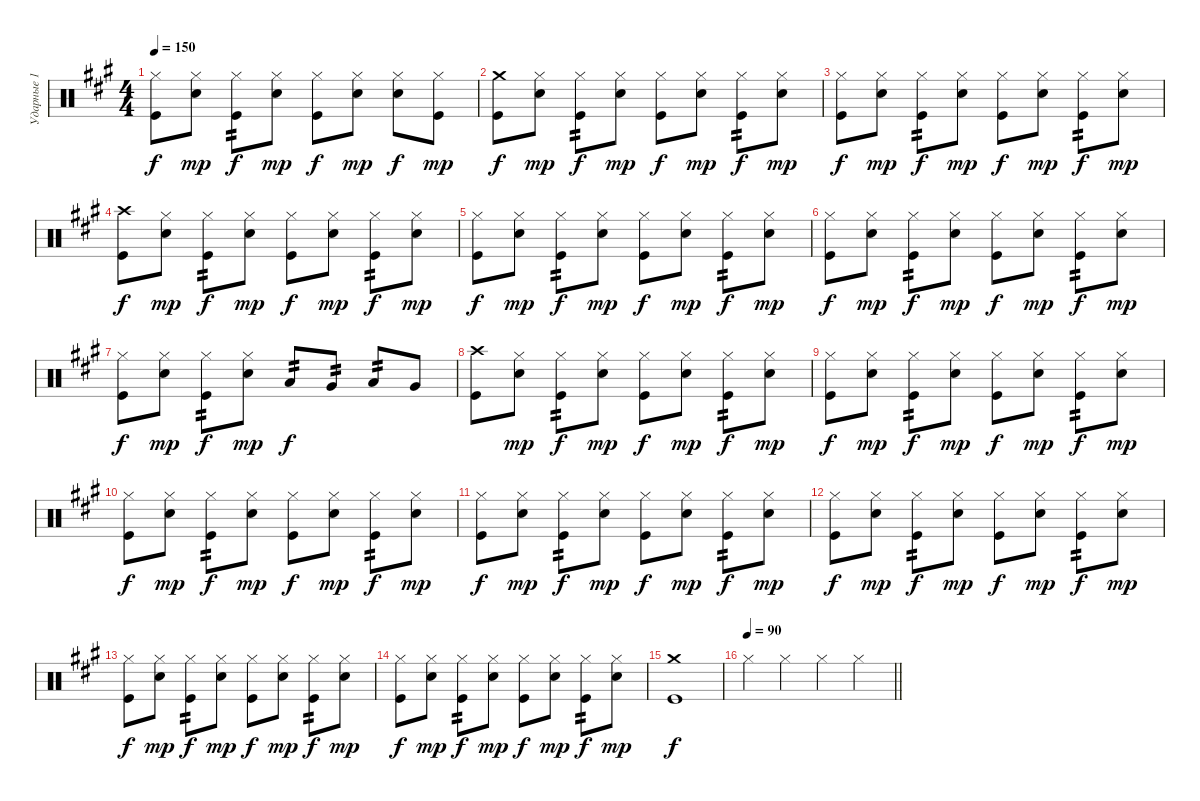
\track ("Ударные 1" "Ударные 1") {instrument percussion}
\staff {score}
\articulation defaults
\ts (4 4)
\tempo 150
\clef neutral
\ks f#minor
("Hi-Hat (closed)" "Kick (hit)").8{dy f} ("Hi-Hat (closed)" "Snare (hit) 2").8{dy mp} ("Hi-Hat (closed)" "Kick (hit)").8{tp 2 dy f} ("Hi-Hat (closed)" "Snare (hit) 2").8{dy mp} ("Hi-Hat (closed)" "Kick (hit)").8{dy f} ("Hi-Hat (closed)" "Snare (hit) 2").8{dy mp} ("Hi-Hat (closed)" "Snare (hit) 2").8{dy f} ("Hi-Hat (closed)" "Kick (hit)").8{dy mp} |
("Crash medium (hit)" "Kick (hit)").8{dy f} ("Hi-Hat (closed)" "Snare (hit) 2").8{dy mp} ("Hi-Hat (closed)" "Kick (hit)").8{tp 2 dy f} ("Hi-Hat (closed)" "Snare (hit) 2").8{dy mp} ("Hi-Hat (closed)" "Kick (hit)").8{dy f} ("Hi-Hat (closed)" "Snare (hit) 2").8{dy mp} ("Hi-Hat (closed)" "Kick (hit)").8{tp 2 dy f} ("Hi-Hat (closed)" "Snare (hit) 2").8{dy mp} |
("Hi-Hat (closed)" "Kick (hit)").8{dy f} ("Hi-Hat (closed)" "Snare (hit) 2").8{dy mp} ("Hi-Hat (closed)" "Kick (hit)").8{tp 2 dy f} ("Hi-Hat (closed)" "Snare (hit) 2").8{dy mp} ("Hi-Hat (closed)" "Kick (hit)").8{dy f} ("Hi-Hat (closed)" "Snare (hit) 2").8{dy mp} ("Hi-Hat (closed)" "Kick (hit)").8{tp 2 dy f} ("Hi-Hat (closed)" "Snare (hit) 2").8{dy mp} |
("Crash high (hit)" "Kick (hit)").8{dy f} ("Hi-Hat (closed)" "Snare (hit) 2").8{dy mp} ("Hi-Hat (closed)" "Kick (hit)").8{tp 2 dy f} ("Hi-Hat (closed)" "Snare (hit) 2").8{dy mp} ("Hi-Hat (closed)" "Kick (hit)").8{dy f} ("Hi-Hat (closed)" "Snare (hit) 2").8{dy mp} ("Hi-Hat (closed)" "Kick (hit)").8{tp 2 dy f} ("Hi-Hat (closed)" "Snare (hit) 2").8{dy mp} |
("Hi-Hat (closed)" "Kick (hit)").8{dy f} ("Hi-Hat (closed)" "Snare (hit) 2").8{dy mp} ("Hi-Hat (closed)" "Kick (hit)").8{tp 2 dy f} ("Hi-Hat (closed)" "Snare (hit) 2").8{dy mp} ("Hi-Hat (closed)" "Kick (hit)").8{dy f} ("Hi-Hat (closed)" "Snare (hit) 2").8{dy mp} ("Hi-Hat (closed)" "Kick (hit)").8{tp 2 dy f} ("Hi-Hat (closed)" "Snare (hit) 2").8{dy mp} |
("Hi-Hat (closed)" "Kick (hit)").8{dy f} ("Hi-Hat (closed)" "Snare (hit) 2").8{dy mp} ("Hi-Hat (closed)" "Kick (hit)").8{tp 2 dy f} ("Hi-Hat (closed)" "Snare (hit) 2").8{dy mp} ("Hi-Hat (closed)" "Kick (hit)").8{dy f} ("Hi-Hat (closed)" "Snare (hit) 2").8{dy mp} ("Hi-Hat (closed)" "Kick (hit)").8{tp 2 dy f} ("Hi-Hat (closed)" "Snare (hit) 2").8{dy mp} |
("Hi-Hat (closed)" "Kick (hit)").8{dy f} ("Hi-Hat (closed)" "Snare (hit) 2").8{dy mp} ("Hi-Hat (closed)" "Kick (hit)").8{tp 2 dy f} ("Hi-Hat (closed)" "Snare (hit) 2").8{dy mp} "Low Tom (hit)".8{tp 2 dy f} "Very Low Tom (hit)".8{tp 2} "Low Floor Tom (hit)".8{tp 2} "Very Low Tom (hit)".8 |
("Crash high (hit)" "Kick (hit)").8 ("Hi-Hat (closed)" "Snare (hit) 2").8{dy mp} ("Hi-Hat (closed)" "Kick (hit)").8{tp 2 dy f} ("Hi-Hat (closed)" "Snare (hit) 2").8{dy mp} ("Hi-Hat (closed)" "Kick (hit)").8{dy f} ("Hi-Hat (closed)" "Snare (hit) 2").8{dy mp} ("Hi-Hat (closed)" "Kick (hit)").8{tp 2 dy f} ("Hi-Hat (closed)" "Snare (hit) 2").8{dy mp} |
("Hi-Hat (closed)" "Kick (hit)").8{dy f} ("Hi-Hat (closed)" "Snare (hit) 2").8{dy mp} ("Hi-Hat (closed)" "Kick (hit)").8{tp 2 dy f} ("Hi-Hat (closed)" "Snare (hit) 2").8{dy mp} ("Hi-Hat (closed)" "Kick (hit)").8{dy f} ("Hi-Hat (closed)" "Snare (hit) 2").8{dy mp} ("Hi-Hat (closed)" "Kick (hit)").8{tp 2 dy f} ("Hi-Hat (closed)" "Snare (hit) 2").8{dy mp} |
("Hi-Hat (closed)" "Kick (hit)").8{dy f} ("Hi-Hat (closed)" "Snare (hit) 2").8{dy mp} ("Hi-Hat (closed)" "Kick (hit)").8{tp 2 dy f} ("Hi-Hat (closed)" "Snare (hit) 2").8{dy mp} ("Hi-Hat (closed)" "Kick (hit)").8{dy f} ("Hi-Hat (closed)" "Snare (hit) 2").8{dy mp} ("Hi-Hat (closed)" "Kick (hit)").8{tp 2 dy f} ("Hi-Hat (closed)" "Snare (hit) 2").8{dy mp} |
("Hi-Hat (closed)" "Kick (hit)").8{dy f} ("Hi-Hat (closed)" "Snare (hit) 2").8{dy mp} ("Hi-Hat (closed)" "Kick (hit)").8{tp 2 dy f} ("Hi-Hat (closed)" "Snare (hit) 2").8{dy mp} ("Hi-Hat (closed)" "Kick (hit)").8{dy f} ("Hi-Hat (closed)" "Snare (hit) 2").8{dy mp} ("Hi-Hat (closed)" "Kick (hit)").8{tp 2 dy f} ("Hi-Hat (closed)" "Snare (hit) 2").8{dy mp} |
("Hi-Hat (closed)" "Kick (hit)").8{dy f} ("Hi-Hat (closed)" "Snare (hit) 2").8{dy mp} ("Hi-Hat (closed)" "Kick (hit)").8{tp 2 dy f} ("Hi-Hat (closed)" "Snare (hit) 2").8{dy mp} ("Hi-Hat (closed)" "Kick (hit)").8{dy f} ("Hi-Hat (closed)" "Snare (hit) 2").8{dy mp} ("Hi-Hat (closed)" "Kick (hit)").8{tp 2 dy f} ("Hi-Hat (closed)" "Snare (hit) 2").8{dy mp} |
("Hi-Hat (closed)" "Kick (hit)").8{dy f} ("Hi-Hat (closed)" "Snare (hit) 2").8{dy mp} ("Hi-Hat (closed)" "Kick (hit)").8{tp 2 dy f} ("Hi-Hat (closed)" "Snare (hit) 2").8{dy mp} ("Hi-Hat (closed)" "Kick (hit)").8{dy f} ("Hi-Hat (closed)" "Snare (hit) 2").8{dy mp} ("Hi-Hat (closed)" "Kick (hit)").8{tp 2 dy f} ("Hi-Hat (closed)" "Snare (hit) 2").8{dy mp} |
("Hi-Hat (closed)" "Kick (hit)").8{dy f} ("Hi-Hat (closed)" "Snare (hit) 2").8{dy mp} ("Hi-Hat (closed)" "Kick (hit)").8{tp 2 dy f} ("Hi-Hat (closed)" "Snare (hit) 2").8{dy mp} ("Hi-Hat (closed)" "Kick (hit)").8{dy f} ("Hi-Hat (closed)" "Snare (hit) 2").8{dy mp} ("Hi-Hat (closed)" "Kick (hit)").8{tp 2 dy f} ("Hi-Hat (closed)" "Snare (hit) 2").8{dy mp} |
("Crash medium (hit)" "Kick (hit)").1{dy f} |
\tempo 90
\barLineRight lightlight "Hi-Hat (closed)".4 "Hi-Hat (closed)".4 "Hi-Hat (closed)".4 "Hi-Hat (closed)".4
